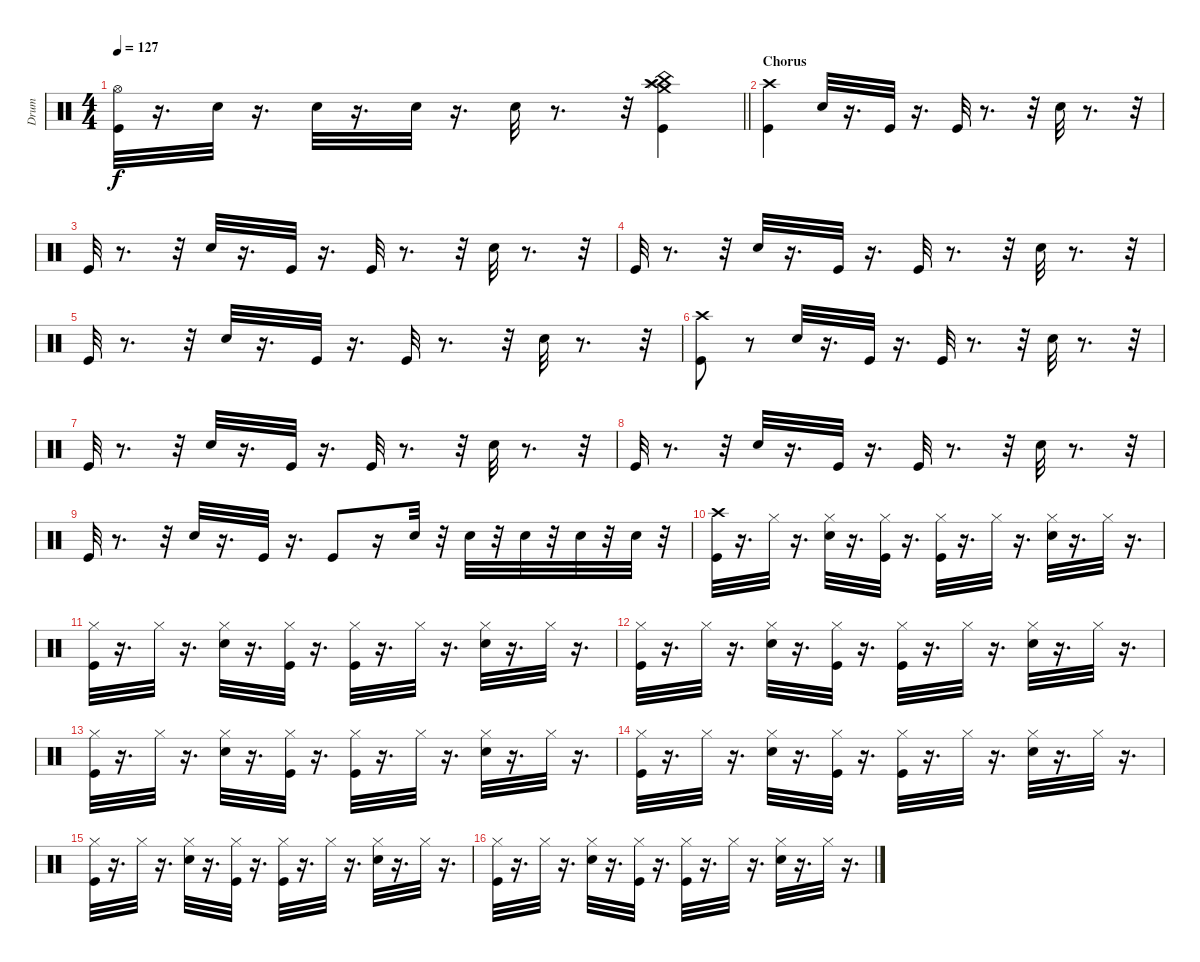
\track ("Drum" "Drum") {instrument percussion}
\staff {score}
\articulation defaults
\ts (4 4)
\tempo 127
\clef neutral
\barLineRight lightlight
\ks c
("Kick (hit)" "Hi-Hat (open)").32{dy f} r.16{d} "Snare (hit) 2".32 r.16{d} "Snare (hit) 2".32 r.16{d} "Snare (hit) 2".32 r.16{d} "Snare (hit) 2".32 r.8{d} r.32 ("Crash medium (hit)" "Kick (hit)" "Splash (hit)" "China (hit)" "Crash high (hit)").4 |
\section ("" "Chorus")
("Kick (hit)" "Crash high (hit)").4 "Snare (hit) 2".32 r.16{d} "Kick (hit)".32 r.16{d} "Kick (hit)".32 r.8{d} r.32 "Snare (hit) 2".32 r.8{d} r.32 |
"Kick (hit)".32 r.8{d} r.32 "Snare (hit) 2".32 r.16{d} "Kick (hit)".32 r.16{d} "Kick (hit)".32 r.8{d} r.32 "Snare (hit) 2".32 r.8{d} r.32 |
"Kick (hit)".32 r.8{d} r.32 "Snare (hit) 2".32 r.16{d} "Kick (hit)".32 r.16{d} "Kick (hit)".32 r.8{d} r.32 "Snare (hit) 2".32 r.8{d} r.32 |
"Kick (hit)".32 r.8{d} r.32 "Snare (hit) 2".32 r.16{d} "Kick (hit)".32 r.16{d} "Kick (hit)".32 r.8{d} r.32 "Snare (hit) 2".32 r.8{d} r.32 |
("Kick (hit)" "Crash high (hit)").8 r.8 "Snare (hit) 2".32 r.16{d} "Kick (hit)".32 r.16{d} "Kick (hit)".32 r.8{d} r.32 "Snare (hit) 2".32 r.8{d} r.32 |
"Kick (hit)".32 r.8{d} r.32 "Snare (hit) 2".32 r.16{d} "Kick (hit)".32 r.16{d} "Kick (hit)".32 r.8{d} r.32 "Snare (hit) 2".32 r.8{d} r.32 |
"Kick (hit)".32 r.8{d} r.32 "Snare (hit) 2".32 r.16{d} "Kick (hit)".32 r.16{d} "Kick (hit)".32 r.8{d} r.32 "Snare (hit) 2".32 r.8{d} r.32 |
"Kick (hit)".32 r.8{d} r.32 "Snare (hit) 2".32 r.16{d} "Kick (hit)".32 r.16{d} "Kick (hit)".8 r.16 "Snare (hit) 2".32 r.32 "Snare (hit) 2".32 r.32 "Snare (hit) 2".32 r.32 "Snare (hit) 2".32 r.32 "Snare (hit) 2".32 r.32 |
("Crash high (hit)" "Kick (hit)").32 r.16{d} "Hi-Hat (closed)".32 r.16{d} ("Snare (hit) 2" "Hi-Hat (closed)").32 r.16{d} ("Kick (hit)" "Hi-Hat (closed)").32 r.16{d} ("Hi-Hat (closed)" "Kick (hit)").32 r.16{d} "Hi-Hat (closed)".32 r.16{d} ("Snare (hit) 2" "Hi-Hat (closed)").32 r.16{d} "Hi-Hat (closed)".32 r.16{d} |
("Kick (hit)" "Hi-Hat (closed)").32 r.16{d} "Hi-Hat (closed)".32 r.16{d} ("Snare (hit) 2" "Hi-Hat (closed)").32 r.16{d} ("Kick (hit)" "Hi-Hat (closed)").32 r.16{d} ("Hi-Hat (closed)" "Kick (hit)").32 r.16{d} "Hi-Hat (closed)".32 r.16{d} ("Snare (hit) 2" "Hi-Hat (closed)").32 r.16{d} "Hi-Hat (closed)".32 r.16{d} |
("Kick (hit)" "Hi-Hat (closed)").32 r.16{d} "Hi-Hat (closed)".32 r.16{d} ("Snare (hit) 2" "Hi-Hat (closed)").32 r.16{d} ("Kick (hit)" "Hi-Hat (closed)").32 r.16{d} ("Hi-Hat (closed)" "Kick (hit)").32 r.16{d} "Hi-Hat (closed)".32 r.16{d} ("Snare (hit) 2" "Hi-Hat (closed)").32 r.16{d} "Hi-Hat (closed)".32 r.16{d} |
("Kick (hit)" "Hi-Hat (closed)").32 r.16{d} "Hi-Hat (closed)".32 r.16{d} ("Snare (hit) 2" "Hi-Hat (closed)").32 r.16{d} ("Kick (hit)" "Hi-Hat (closed)").32 r.16{d} ("Hi-Hat (closed)" "Kick (hit)").32 r.16{d} "Hi-Hat (closed)".32 r.16{d} ("Snare (hit) 2" "Hi-Hat (closed)").32 r.16{d} "Hi-Hat (closed)".32 r.16{d} |
("Kick (hit)" "Hi-Hat (closed)").32 r.16{d} "Hi-Hat (closed)".32 r.16{d} ("Snare (hit) 2" "Hi-Hat (closed)").32 r.16{d} ("Kick (hit)" "Hi-Hat (closed)").32 r.16{d} ("Hi-Hat (closed)" "Kick (hit)").32 r.16{d} "Hi-Hat (closed)".32 r.16{d} ("Snare (hit) 2" "Hi-Hat (closed)").32 r.16{d} "Hi-Hat (closed)".32 r.16{d} |
("Kick (hit)" "Hi-Hat (closed)").32 r.16{d} "Hi-Hat (closed)".32 r.16{d} ("Snare (hit) 2" "Hi-Hat (closed)").32 r.16{d} ("Kick (hit)" "Hi-Hat (closed)").32 r.16{d} ("Hi-Hat (closed)" "Kick (hit)").32 r.16{d} "Hi-Hat (closed)".32 r.16{d} ("Snare (hit) 2" "Hi-Hat (closed)").32 r.16{d} "Hi-Hat (closed)".32 r.16{d} |
("Kick (hit)" "Hi-Hat (closed)").32 r.16{d} "Hi-Hat (closed)".32 r.16{d} ("Snare (hit) 2" "Hi-Hat (closed)").32 r.16{d} ("Kick (hit)" "Hi-Hat (closed)").32 r.16{d} ("Hi-Hat (closed)" "Kick (hit)").32 r.16{d} "Hi-Hat (closed)".32 r.16{d} ("Snare (hit) 2" "Hi-Hat (closed)").32 r.16{d} "Hi-Hat (closed)".32 r.16{d}
